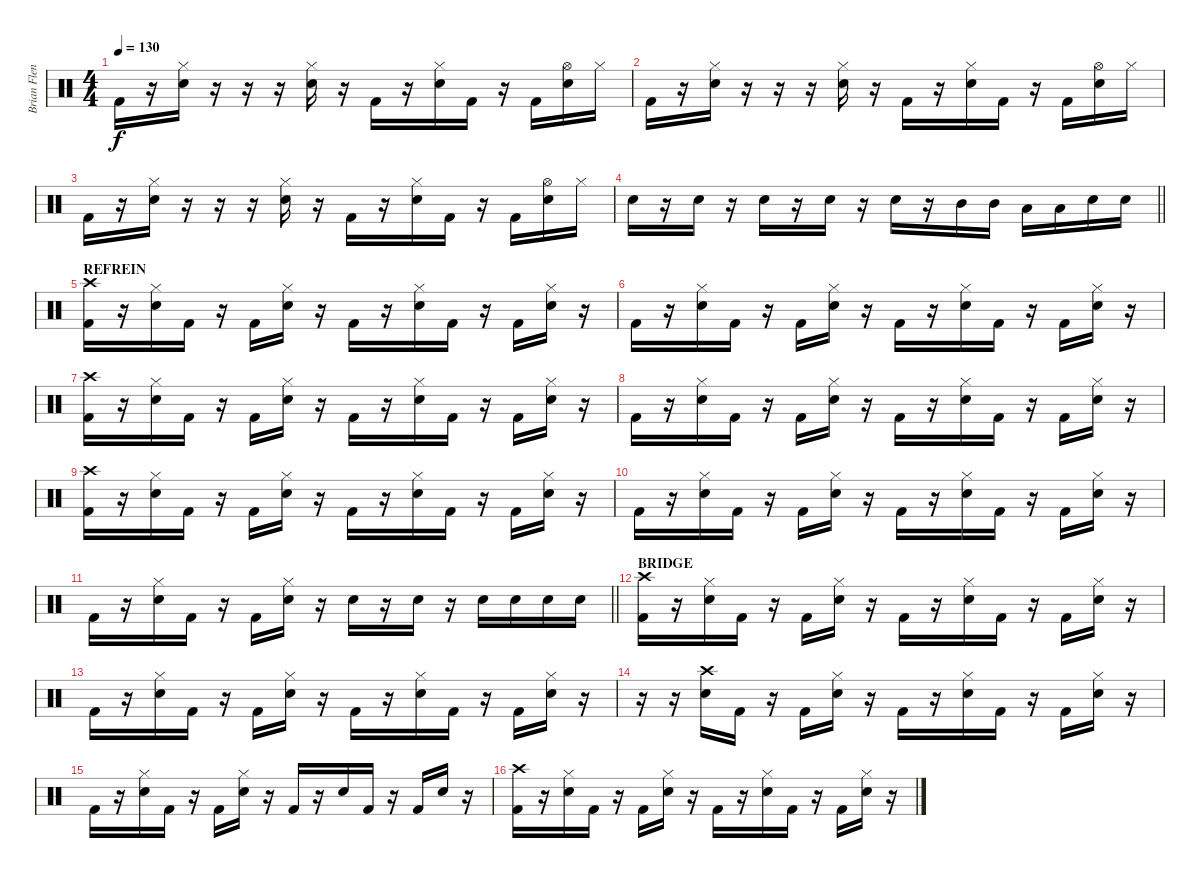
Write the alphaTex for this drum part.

\track ("Brian Flenniken" "Brian Flen") {instrument percussion}
\staff {score}
\articulation defaults
\ts (4 4)
\tempo 130
\clef neutral
\ks c "Kick (hit) 2".16{dy f}
r.16 ("Hi-Hat (closed)" "Snare (hit) 2").16 r.16 r.16 r.16 ("Hi-Hat (closed)" "Snare (hit) 2").16 r.16 "Kick (hit) 2".16 r.16 ("Hi-Hat (closed)" "Snare (hit) 2").16 "Kick (hit) 2".16 r.16 "Kick (hit) 2".16 ("Hi-Hat (open)" "Snare (hit) 2").16 "Hi-Hat (closed)".16 |
"Kick (hit) 2".16 r.16 ("Hi-Hat (closed)" "Snare (hit) 2").16 r.16 r.16 r.16 ("Hi-Hat (closed)" "Snare (hit) 2").16 r.16 "Kick (hit) 2".16 r.16 ("Hi-Hat (closed)" "Snare (hit) 2").16 "Kick (hit) 2".16 r.16 "Kick (hit) 2".16 ("Hi-Hat (open)" "Snare (hit) 2").16 "Hi-Hat (closed)".16 |
"Kick (hit) 2".16 r.16 ("Hi-Hat (closed)" "Snare (hit) 2").16 r.16 r.16 r.16 ("Hi-Hat (closed)" "Snare (hit) 2").16 r.16 "Kick (hit) 2".16 r.16 ("Hi-Hat (closed)" "Snare (hit) 2").16 "Kick (hit) 2".16 r.16 "Kick (hit) 2".16 ("Hi-Hat (open)" "Snare (hit) 2").16 "Hi-Hat (closed)".16 |
\barLineRight lightlight "Snare (hit) 2".16
r.16 "Snare (hit) 2".16 r.16 "Snare (hit) 2".16 r.16 "Snare (hit) 2".16 r.16 "Snare (hit) 2".16 r.16 "Mid Tom (hit)".16 "Mid Tom (hit)".16 "Low Tom (hit)".16 "Low Tom (hit)".16 "Snare (hit) 2".16 "Snare (hit) 2".16 |
\section ("" "REFREIN")
("Crash high (hit)" "Kick (hit) 2").16 r.16 ("Hi-Hat (closed)" "Snare (hit) 2").16 "Kick (hit) 2".16 r.16 "Kick (hit) 2".16 ("Hi-Hat (closed)" "Snare (hit) 2").16 r.16 "Kick (hit) 2".16 r.16 ("Hi-Hat (closed)" "Snare (hit) 2").16 "Kick (hit) 2".16 r.16 "Kick (hit) 2".16 ("Hi-Hat (closed)" "Snare (hit) 2").16 r.16 |
"Kick (hit) 2".16 r.16 ("Hi-Hat (closed)" "Snare (hit) 2").16 "Kick (hit) 2".16 r.16 "Kick (hit) 2".16 ("Hi-Hat (closed)" "Snare (hit) 2").16 r.16 "Kick (hit) 2".16 r.16 ("Hi-Hat (closed)" "Snare (hit) 2").16 "Kick (hit) 2".16 r.16 "Kick (hit) 2".16 ("Hi-Hat (closed)" "Snare (hit) 2").16 r.16 |
("Crash high (hit)" "Kick (hit) 2").16 r.16 ("Hi-Hat (closed)" "Snare (hit) 2").16 "Kick (hit) 2".16 r.16 "Kick (hit) 2".16 ("Hi-Hat (closed)" "Snare (hit) 2").16 r.16 "Kick (hit) 2".16 r.16 ("Hi-Hat (closed)" "Snare (hit) 2").16 "Kick (hit) 2".16 r.16 "Kick (hit) 2".16 ("Hi-Hat (closed)" "Snare (hit) 2").16 r.16 |
"Kick (hit) 2".16 r.16 ("Hi-Hat (closed)" "Snare (hit) 2").16 "Kick (hit) 2".16 r.16 "Kick (hit) 2".16 ("Hi-Hat (closed)" "Snare (hit) 2").16 r.16 "Kick (hit) 2".16 r.16 ("Hi-Hat (closed)" "Snare (hit) 2").16 "Kick (hit) 2".16 r.16 "Kick (hit) 2".16 ("Hi-Hat (closed)" "Snare (hit) 2").16 r.16 |
("Crash high (hit)" "Kick (hit) 2").16 r.16 ("Hi-Hat (closed)" "Snare (hit) 2").16 "Kick (hit) 2".16 r.16 "Kick (hit) 2".16 ("Hi-Hat (closed)" "Snare (hit) 2").16 r.16 "Kick (hit) 2".16 r.16 ("Hi-Hat (closed)" "Snare (hit) 2").16 "Kick (hit) 2".16 r.16 "Kick (hit) 2".16 ("Hi-Hat (closed)" "Snare (hit) 2").16 r.16 |
"Kick (hit) 2".16 r.16 ("Hi-Hat (closed)" "Snare (hit) 2").16 "Kick (hit) 2".16 r.16 "Kick (hit) 2".16 ("Hi-Hat (closed)" "Snare (hit) 2").16 r.16 "Kick (hit) 2".16 r.16 ("Hi-Hat (closed)" "Snare (hit) 2").16 "Kick (hit) 2".16 r.16 "Kick (hit) 2".16 ("Hi-Hat (closed)" "Snare (hit) 2").16 r.16 |
\barLineRight lightlight "Kick (hit) 2".16
r.16 ("Hi-Hat (closed)" "Snare (hit) 2").16 "Kick (hit) 2".16 r.16 "Kick (hit) 2".16 ("Hi-Hat (closed)" "Snare (hit) 2").16 r.16 "Snare (hit) 2".16 r.16 "Snare (hit) 2".16 r.16 "Snare (hit) 2".16 "Snare (hit) 2".16 "Snare (hit) 2".16 "Snare (hit) 2".16 |
\section ("" "BRIDGE")
("Crash high (hit)" "Kick (hit) 2").16 r.16 ("Hi-Hat (closed)" "Snare (hit) 2").16 "Kick (hit) 2".16 r.16 "Kick (hit) 2".16 ("Hi-Hat (closed)" "Snare (hit) 2").16 r.16 "Kick (hit) 2".16 r.16 ("Hi-Hat (closed)" "Snare (hit) 2").16 "Kick (hit) 2".16 r.16 "Kick (hit) 2".16 ("Hi-Hat (closed)" "Snare (hit) 2").16 r.16 |
"Kick (hit) 2".16 r.16 ("Hi-Hat (closed)" "Snare (hit) 2").16 "Kick (hit) 2".16 r.16 "Kick (hit) 2".16 ("Hi-Hat (closed)" "Snare (hit) 2").16 r.16 "Kick (hit) 2".16 r.16 ("Hi-Hat (closed)" "Snare (hit) 2").16 "Kick (hit) 2".16 r.16 "Kick (hit) 2".16 ("Hi-Hat (closed)" "Snare (hit) 2").16 r.16 |
r.16 r.16 ("Crash high (hit)" "Snare (hit) 2").16 "Kick (hit) 2".16 r.16 "Kick (hit) 2".16 ("Hi-Hat (closed)" "Snare (hit) 2").16 r.16 "Kick (hit) 2".16 r.16 ("Hi-Hat (closed)" "Snare (hit) 2").16 "Kick (hit) 2".16 r.16 "Kick (hit) 2".16 ("Hi-Hat (closed)" "Snare (hit) 2").16 r.16 |
"Kick (hit) 2".16 r.16 ("Hi-Hat (closed)" "Snare (hit) 2").16 "Kick (hit) 2".16 r.16 "Kick (hit) 2".16 ("Hi-Hat (closed)" "Snare (hit) 2").16 r.16 "Kick (hit) 2".16 r.16 "Snare (hit) 2".16 "Kick (hit) 2".16 r.16 "Kick (hit) 2".16 "Snare (hit) 2".16 r.16 |
("Crash high (hit)" "Kick (hit) 2").16 r.16 ("Hi-Hat (closed)" "Snare (hit) 2").16 "Kick (hit) 2".16 r.16 "Kick (hit) 2".16 ("Hi-Hat (closed)" "Snare (hit) 2").16 r.16 "Kick (hit) 2".16 r.16 ("Hi-Hat (closed)" "Snare (hit) 2").16 "Kick (hit) 2".16 r.16 "Kick (hit) 2".16 ("Hi-Hat (closed)" "Snare (hit) 2").16 r.16
